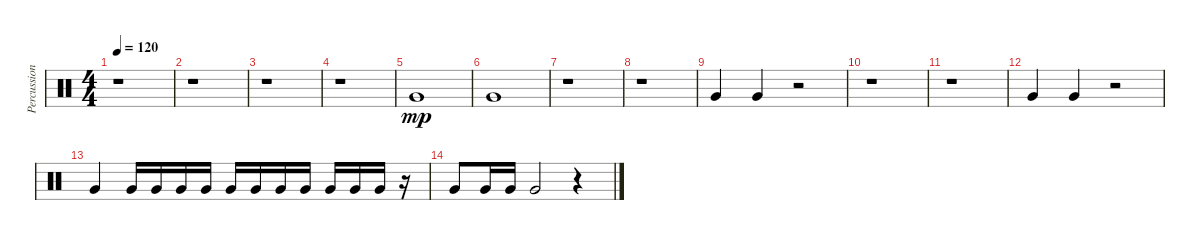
\track ("Percussion 1" "Percussion") {instrument percussion}
\staff {score}
\articulation defaults
\ts (4 4)
\tempo 120
\clef neutral
\ks c
r.1{dy mp} |
r.1 |
r.1 |
r.1 |
"Very Low Tom (hit)".1{balance 8} |
"Very Low Tom (hit)".1 |
r.1 |
r.1 |
"Very Low Tom (hit)".4 "Very Low Tom (hit)".4 r.2 |
r.1 |
r.1 |
"Very Low Tom (hit)".4 "Very Low Tom (hit)".4 r.2 |
"Very Low Tom (hit)".4 "Very Low Tom (hit)".16 "Very Low Tom (hit)".16 "Very Low Tom (hit)".16 "Very Low Tom (hit)".16 "Very Low Tom (hit)".16 "Very Low Tom (hit)".16 "Very Low Tom (hit)".16 "Very Low Tom (hit)".16 "Very Low Tom (hit)".16 "Very Low Tom (hit)".16 "Very Low Tom (hit)".16 r.16 |
"Very Low Tom (hit)".8 "Very Low Tom (hit)".16 "Very Low Tom (hit)".16 "Very Low Tom (hit)".2 r.4
